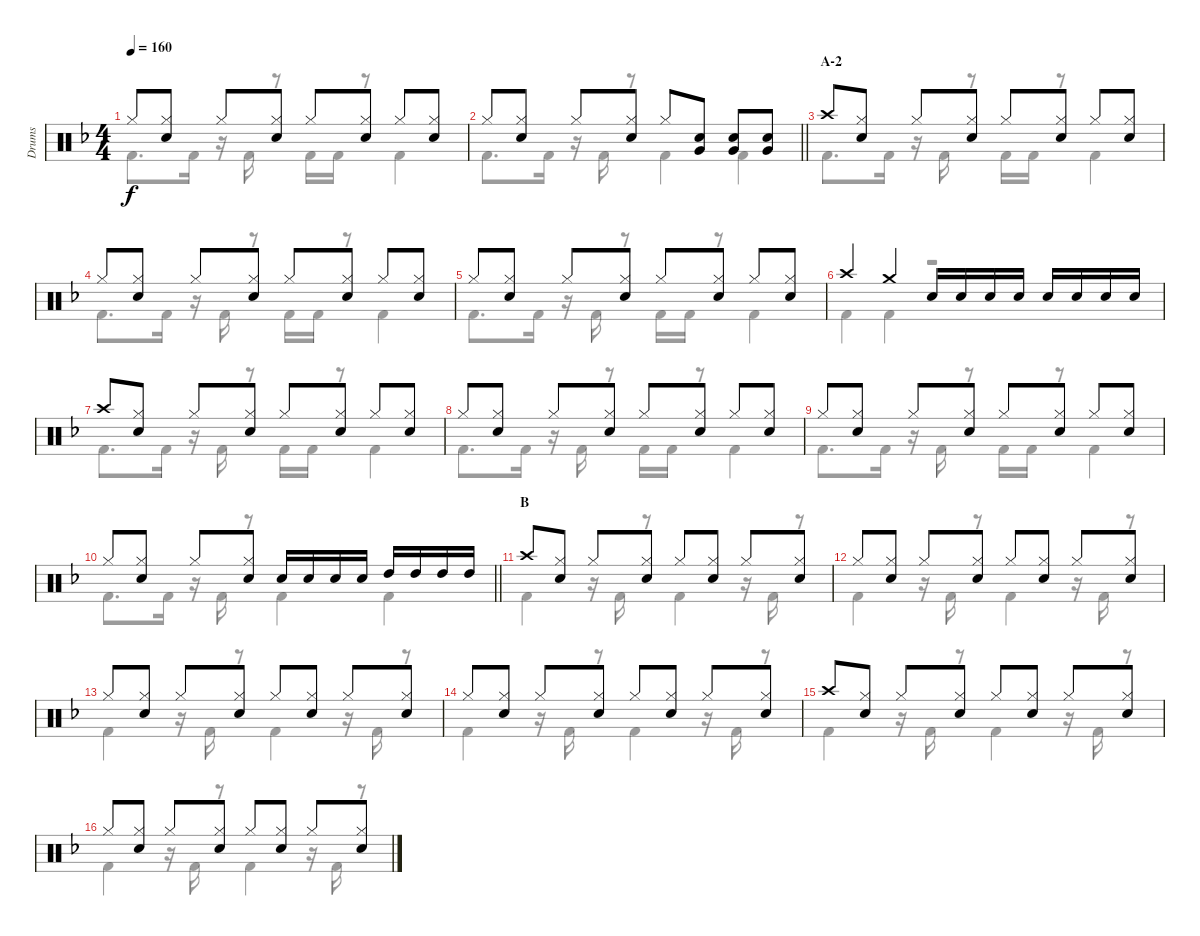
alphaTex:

\track ("Drums" "Drums") {instrument percussion}
\staff {score}
\articulation defaults
\voice
\ts (4 4)
\tempo 160
\clef neutral
\ks f "Hi-Hat (closed)".8{dy f}
("Hi-Hat (closed)" "Snare (hit) 2").8 "Hi-Hat (closed)".8 ("Hi-Hat (closed)" "Snare (hit) 2").8 "Hi-Hat (closed)".8 ("Hi-Hat (closed)" "Snare (hit) 2").8 "Hi-Hat (closed)".8 ("Hi-Hat (closed)" "Snare (hit) 2").8 |
\barLineRight lightlight "Hi-Hat (closed)".8
("Hi-Hat (closed)" "Snare (hit) 2").8 "Hi-Hat (closed)".8 ("Hi-Hat (closed)" "Snare (hit) 2").8 "Hi-Hat (closed)".8 ("Snare (hit) 2" "Very Low Tom (hit)").8 ("Snare (hit) 2" "Very Low Tom (hit)").8 ("Snare (hit) 2" "Very Low Tom (hit)").8 |
\section ("" "A-2")
"Crash high (hit)".8 ("Hi-Hat (closed)" "Snare (hit) 2").8 "Hi-Hat (closed)".8 ("Hi-Hat (closed)" "Snare (hit) 2").8 "Hi-Hat (closed)".8 ("Hi-Hat (closed)" "Snare (hit) 2").8 "Hi-Hat (closed)".8 ("Hi-Hat (closed)" "Snare (hit) 2").8 |
"Hi-Hat (closed)".8 ("Hi-Hat (closed)" "Snare (hit) 2").8 "Hi-Hat (closed)".8 ("Hi-Hat (closed)" "Snare (hit) 2").8 "Hi-Hat (closed)".8 ("Hi-Hat (closed)" "Snare (hit) 2").8 "Hi-Hat (closed)".8 ("Hi-Hat (closed)" "Snare (hit) 2").8 |
"Hi-Hat (closed)".8 ("Hi-Hat (closed)" "Snare (hit) 2").8 "Hi-Hat (closed)".8 ("Hi-Hat (closed)" "Snare (hit) 2").8 "Hi-Hat (closed)".8 ("Hi-Hat (closed)" "Snare (hit) 2").8 "Hi-Hat (closed)".8 ("Hi-Hat (closed)" "Snare (hit) 2").8 |
"Crash high (hit)".4 "Crash medium (hit)".4 "Snare (hit) 2".16 "Snare (hit) 2".16 "Snare (hit) 2".16 "Snare (hit) 2".16 "Snare (hit) 2".16 "Snare (hit) 2".16 "Snare (hit) 2".16 "Snare (hit) 2".16 |
"Crash high (hit)".8 ("Hi-Hat (closed)" "Snare (hit) 2").8 "Hi-Hat (closed)".8 ("Hi-Hat (closed)" "Snare (hit) 2").8 "Hi-Hat (closed)".8 ("Hi-Hat (closed)" "Snare (hit) 2").8 "Hi-Hat (closed)".8 ("Hi-Hat (closed)" "Snare (hit) 2").8 |
"Hi-Hat (closed)".8 ("Hi-Hat (closed)" "Snare (hit) 2").8 "Hi-Hat (closed)".8 ("Hi-Hat (closed)" "Snare (hit) 2").8 "Hi-Hat (closed)".8 ("Hi-Hat (closed)" "Snare (hit) 2").8 "Hi-Hat (closed)".8 ("Hi-Hat (closed)" "Snare (hit) 2").8 |
"Hi-Hat (closed)".8 ("Hi-Hat (closed)" "Snare (hit) 2").8 "Hi-Hat (closed)".8 ("Hi-Hat (closed)" "Snare (hit) 2").8 "Hi-Hat (closed)".8 ("Hi-Hat (closed)" "Snare (hit) 2").8 "Hi-Hat (closed)".8 ("Hi-Hat (closed)" "Snare (hit) 2").8 |
\barLineRight lightlight "Hi-Hat (closed)".8
("Hi-Hat (closed)" "Snare (hit) 2").8 "Hi-Hat (closed)".8 ("Hi-Hat (closed)" "Snare (hit) 2").8 "Snare (hit) 2".16 "Snare (hit) 2".16 "Snare (hit) 2".16 "Snare (hit) 2".16 "High Tom (hit)".16 "High Tom (hit)".16 "High Tom (hit)".16 "High Tom (hit)".16 |
\section ("" "B")
"Crash high (hit)".8 ("Hi-Hat (closed)" "Snare (hit) 2").8 "Hi-Hat (closed)".8 ("Hi-Hat (closed)" "Snare (hit) 2").8 "Hi-Hat (closed)".8 ("Hi-Hat (closed)" "Snare (hit) 2").8 "Hi-Hat (closed)".8 ("Hi-Hat (closed)" "Snare (hit) 2").8 |
"Hi-Hat (closed)".8 ("Hi-Hat (closed)" "Snare (hit) 2").8 "Hi-Hat (closed)".8 ("Hi-Hat (closed)" "Snare (hit) 2").8 "Hi-Hat (closed)".8 ("Hi-Hat (closed)" "Snare (hit) 2").8 "Hi-Hat (closed)".8 ("Hi-Hat (closed)" "Snare (hit) 2").8 |
"Hi-Hat (closed)".8 ("Hi-Hat (closed)" "Snare (hit) 2").8 "Hi-Hat (closed)".8 ("Hi-Hat (closed)" "Snare (hit) 2").8 "Hi-Hat (closed)".8 ("Hi-Hat (closed)" "Snare (hit) 2").8 "Hi-Hat (closed)".8 ("Hi-Hat (closed)" "Snare (hit) 2").8 |
"Hi-Hat (closed)".8 ("Hi-Hat (closed)" "Snare (hit) 2").8 "Hi-Hat (closed)".8 ("Hi-Hat (closed)" "Snare (hit) 2").8 "Hi-Hat (closed)".8 ("Hi-Hat (closed)" "Snare (hit) 2").8 "Hi-Hat (closed)".8 ("Hi-Hat (closed)" "Snare (hit) 2").8 |
"Crash high (hit)".8 ("Hi-Hat (closed)" "Snare (hit) 2").8 "Hi-Hat (closed)".8 ("Hi-Hat (closed)" "Snare (hit) 2").8 "Hi-Hat (closed)".8 ("Hi-Hat (closed)" "Snare (hit) 2").8 "Hi-Hat (closed)".8 ("Hi-Hat (closed)" "Snare (hit) 2").8 |
"Hi-Hat (closed)".8 ("Hi-Hat (closed)" "Snare (hit) 2").8 "Hi-Hat (closed)".8 ("Hi-Hat (closed)" "Snare (hit) 2").8 "Hi-Hat (closed)".8 ("Hi-Hat (closed)" "Snare (hit) 2").8 "Hi-Hat (closed)".8 ("Hi-Hat (closed)" "Snare (hit) 2").8
\voice
\clef neutral
\ottava regular
\simile none
\ks f "Kick (hit) 2".8{d dy f} "Kick (hit) 2".16
r.16 "Kick (hit) 2".16 r.8 "Kick (hit) 2".16 "Kick (hit) 2".16 r.8 "Kick (hit) 2".4 |
\barLineRight lightlight "Kick (hit) 2".8{d} "Kick (hit) 2".16
r.16 "Kick (hit) 2".16 r.8 "Kick (hit) 2".4 "Kick (hit) 2".4 |
"Kick (hit) 2".8{d} "Kick (hit) 2".16 r.16 "Kick (hit) 2".16 r.8 "Kick (hit) 2".16 "Kick (hit) 2".16 r.8 "Kick (hit) 2".4 |
"Kick (hit) 2".8{d} "Kick (hit) 2".16 r.16 "Kick (hit) 2".16 r.8 "Kick (hit) 2".16 "Kick (hit) 2".16 r.8 "Kick (hit) 2".4 |
"Kick (hit) 2".8{d} "Kick (hit) 2".16 r.16 "Kick (hit) 2".16 r.8 "Kick (hit) 2".16 "Kick (hit) 2".16 r.8 "Kick (hit) 2".4 |
"Kick (hit) 2".4 "Kick (hit) 2".4 r.2 |
"Kick (hit) 2".8{d} "Kick (hit) 2".16 r.16 "Kick (hit) 2".16 r.8 "Kick (hit) 2".16 "Kick (hit) 2".16 r.8 "Kick (hit) 2".4 |
"Kick (hit) 2".8{d} "Kick (hit) 2".16 r.16 "Kick (hit) 2".16 r.8 "Kick (hit) 2".16 "Kick (hit) 2".16 r.8 "Kick (hit) 2".4 |
"Kick (hit) 2".8{d} "Kick (hit) 2".16 r.16 "Kick (hit) 2".16 r.8 "Kick (hit) 2".16 "Kick (hit) 2".16 r.8 "Kick (hit) 2".4 |
\barLineRight lightlight "Kick (hit) 2".8{d} "Kick (hit) 2".16
r.16 "Kick (hit) 2".16 r.8 "Kick (hit) 2".4 "Kick (hit) 2".4 |
"Kick (hit) 2".4 r.16 "Kick (hit) 2".16 r.8 "Kick (hit) 2".4 r.16 "Kick (hit) 2".16 r.8 |
"Kick (hit) 2".4 r.16 "Kick (hit) 2".16 r.8 "Kick (hit) 2".4 r.16 "Kick (hit) 2".16 r.8 |
"Kick (hit) 2".4 r.16 "Kick (hit) 2".16 r.8 "Kick (hit) 2".4 r.16 "Kick (hit) 2".16 r.8 |
"Kick (hit) 2".4 r.16 "Kick (hit) 2".16 r.8 "Kick (hit) 2".4 r.16 "Kick (hit) 2".16 r.8 |
"Kick (hit) 2".4 r.16 "Kick (hit) 2".16 r.8 "Kick (hit) 2".4 r.16 "Kick (hit) 2".16 r.8 |
"Kick (hit) 2".4 r.16 "Kick (hit) 2".16 r.8 "Kick (hit) 2".4 r.16 "Kick (hit) 2".16 r.8
